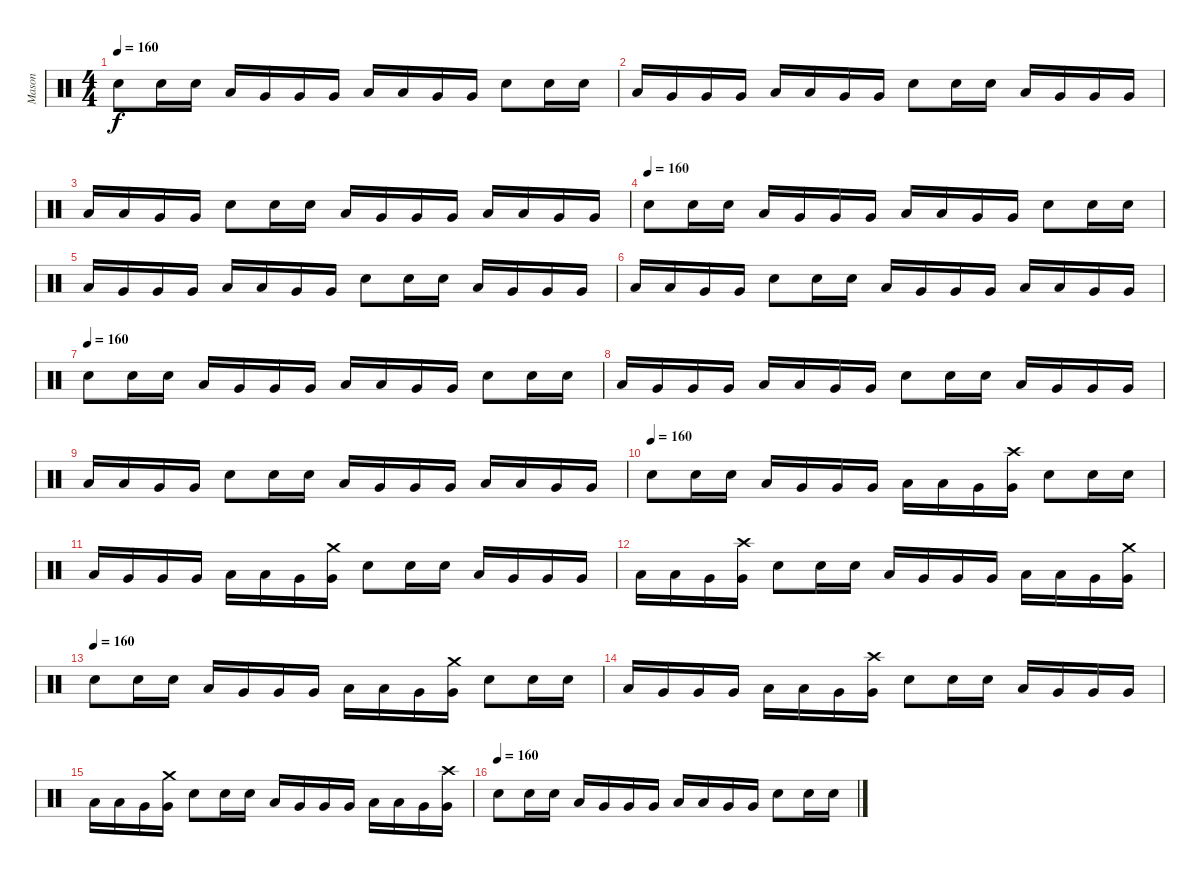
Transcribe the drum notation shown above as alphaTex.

\track ("Mason" "Mason") {instrument percussion}
\staff {score}
\articulation defaults
\ts (4 4)
\tempo 160
\clef neutral
\ks c "Electric Snare (hit)".8{dy f} "Electric Snare (hit)".16 "Electric Snare (hit)".16 "Low Tom (hit)".16 "Very Low Tom (hit)".16 "Very Low Tom (hit)".16 "Very Low Tom (hit)".16 "Low Floor Tom (hit)".16 "Low Floor Tom (hit)".16 "Very Low Tom (hit)".16 "Very Low Tom (hit)".16 "Electric Snare (hit)".8 "Electric Snare (hit)".16 "Electric Snare (hit)".16
|
"Low Tom (hit)".16 "Very Low Tom (hit)".16 "Very Low Tom (hit)".16 "Very Low Tom (hit)".16 "Low Floor Tom (hit)".16 "Low Floor Tom (hit)".16 "Very Low Tom (hit)".16 "Very Low Tom (hit)".16 "Electric Snare (hit)".8 "Electric Snare (hit)".16 "Electric Snare (hit)".16 "Low Tom (hit)".16 "Very Low Tom (hit)".16 "Very Low Tom (hit)".16 "Very Low Tom (hit)".16 |
"Low Floor Tom (hit)".16 "Low Floor Tom (hit)".16 "Very Low Tom (hit)".16 "Very Low Tom (hit)".16 "Electric Snare (hit)".8 "Electric Snare (hit)".16 "Electric Snare (hit)".16 "Low Tom (hit)".16 "Very Low Tom (hit)".16 "Very Low Tom (hit)".16 "Very Low Tom (hit)".16 "Low Floor Tom (hit)".16 "Low Floor Tom (hit)".16 "Very Low Tom (hit)".16 "Very Low Tom (hit)".16 |
\tempo (160)
"Electric Snare (hit)".8 "Electric Snare (hit)".16 "Electric Snare (hit)".16 "Low Tom (hit)".16 "Very Low Tom (hit)".16 "Very Low Tom (hit)".16 "Very Low Tom (hit)".16 "Low Floor Tom (hit)".16 "Low Floor Tom (hit)".16 "Very Low Tom (hit)".16 "Very Low Tom (hit)".16 "Electric Snare (hit)".8 "Electric Snare (hit)".16 "Electric Snare (hit)".16 |
"Low Tom (hit)".16 "Very Low Tom (hit)".16 "Very Low Tom (hit)".16 "Very Low Tom (hit)".16 "Low Floor Tom (hit)".16 "Low Floor Tom (hit)".16 "Very Low Tom (hit)".16 "Very Low Tom (hit)".16 "Electric Snare (hit)".8 "Electric Snare (hit)".16 "Electric Snare (hit)".16 "Low Tom (hit)".16 "Very Low Tom (hit)".16 "Very Low Tom (hit)".16 "Very Low Tom (hit)".16 |
"Low Floor Tom (hit)".16 "Low Floor Tom (hit)".16 "Very Low Tom (hit)".16 "Very Low Tom (hit)".16 "Electric Snare (hit)".8 "Electric Snare (hit)".16 "Electric Snare (hit)".16 "Low Tom (hit)".16 "Very Low Tom (hit)".16 "Very Low Tom (hit)".16 "Very Low Tom (hit)".16 "Low Floor Tom (hit)".16 "Low Floor Tom (hit)".16 "Very Low Tom (hit)".16 "Very Low Tom (hit)".16 |
\tempo (160)
"Electric Snare (hit)".8 "Electric Snare (hit)".16 "Electric Snare (hit)".16 "Low Tom (hit)".16 "Very Low Tom (hit)".16 "Very Low Tom (hit)".16 "Very Low Tom (hit)".16 "Low Floor Tom (hit)".16 "Low Floor Tom (hit)".16 "Very Low Tom (hit)".16 "Very Low Tom (hit)".16 "Electric Snare (hit)".8 "Electric Snare (hit)".16 "Electric Snare (hit)".16 |
"Low Tom (hit)".16 "Very Low Tom (hit)".16 "Very Low Tom (hit)".16 "Very Low Tom (hit)".16 "Low Floor Tom (hit)".16 "Low Floor Tom (hit)".16 "Very Low Tom (hit)".16 "Very Low Tom (hit)".16 "Electric Snare (hit)".8 "Electric Snare (hit)".16 "Electric Snare (hit)".16 "Low Tom (hit)".16 "Very Low Tom (hit)".16 "Very Low Tom (hit)".16 "Very Low Tom (hit)".16 |
"Low Floor Tom (hit)".16 "Low Floor Tom (hit)".16 "Very Low Tom (hit)".16 "Very Low Tom (hit)".16 "Electric Snare (hit)".8 "Electric Snare (hit)".16 "Electric Snare (hit)".16 "Low Tom (hit)".16 "Very Low Tom (hit)".16 "Very Low Tom (hit)".16 "Very Low Tom (hit)".16 "Low Floor Tom (hit)".16 "Low Floor Tom (hit)".16 "Very Low Tom (hit)".16 "Very Low Tom (hit)".16 |
\tempo (160)
"Electric Snare (hit)".8 "Electric Snare (hit)".16 "Electric Snare (hit)".16 "Low Tom (hit)".16 "Very Low Tom (hit)".16 "Very Low Tom (hit)".16 "Very Low Tom (hit)".16 "Low Floor Tom (hit)".16 "Low Floor Tom (hit)".16 "Very Low Tom (hit)".16 ("Crash high (hit)" "Very Low Tom (hit)").16 "Electric Snare (hit)".8 "Electric Snare (hit)".16 "Electric Snare (hit)".16 |
"Low Tom (hit)".16 "Very Low Tom (hit)".16 "Very Low Tom (hit)".16 "Very Low Tom (hit)".16 "Low Floor Tom (hit)".16 "Low Floor Tom (hit)".16 "Very Low Tom (hit)".16 ("Crash medium (hit)" "Very Low Tom (hit)").16 "Electric Snare (hit)".8 "Electric Snare (hit)".16 "Electric Snare (hit)".16 "Low Tom (hit)".16 "Very Low Tom (hit)".16 "Very Low Tom (hit)".16 "Very Low Tom (hit)".16 |
"Low Floor Tom (hit)".16 "Low Floor Tom (hit)".16 "Very Low Tom (hit)".16 ("Crash high (hit)" "Very Low Tom (hit)").16 "Electric Snare (hit)".8 "Electric Snare (hit)".16 "Electric Snare (hit)".16 "Low Tom (hit)".16 "Very Low Tom (hit)".16 "Very Low Tom (hit)".16 "Very Low Tom (hit)".16 "Low Floor Tom (hit)".16 "Low Floor Tom (hit)".16 "Very Low Tom (hit)".16 ("Crash medium (hit)" "Very Low Tom (hit)").16 |
\tempo (160)
"Electric Snare (hit)".8 "Electric Snare (hit)".16 "Electric Snare (hit)".16 "Low Tom (hit)".16 "Very Low Tom (hit)".16 "Very Low Tom (hit)".16 "Very Low Tom (hit)".16 "Low Floor Tom (hit)".16 "Low Floor Tom (hit)".16 "Very Low Tom (hit)".16 ("Crash medium (hit)" "Very Low Tom (hit)").16 "Electric Snare (hit)".8 "Electric Snare (hit)".16 "Electric Snare (hit)".16 |
"Low Tom (hit)".16 "Very Low Tom (hit)".16 "Very Low Tom (hit)".16 "Very Low Tom (hit)".16 "Low Floor Tom (hit)".16 "Low Floor Tom (hit)".16 "Very Low Tom (hit)".16 ("Crash high (hit)" "Very Low Tom (hit)").16 "Electric Snare (hit)".8 "Electric Snare (hit)".16 "Electric Snare (hit)".16 "Low Tom (hit)".16 "Very Low Tom (hit)".16 "Very Low Tom (hit)".16 "Very Low Tom (hit)".16 |
"Low Floor Tom (hit)".16 "Low Floor Tom (hit)".16 "Very Low Tom (hit)".16 ("Crash medium (hit)" "Very Low Tom (hit)").16 "Electric Snare (hit)".8 "Electric Snare (hit)".16 "Electric Snare (hit)".16 "Low Tom (hit)".16 "Very Low Tom (hit)".16 "Very Low Tom (hit)".16 "Very Low Tom (hit)".16 "Low Floor Tom (hit)".16 "Low Floor Tom (hit)".16 "Very Low Tom (hit)".16 ("Crash high (hit)" "Very Low Tom (hit)").16 |
\tempo (160)
"Electric Snare (hit)".8 "Electric Snare (hit)".16 "Electric Snare (hit)".16 "Low Tom (hit)".16 "Very Low Tom (hit)".16 "Very Low Tom (hit)".16 "Very Low Tom (hit)".16 "Low Floor Tom (hit)".16 "Low Floor Tom (hit)".16 "Very Low Tom (hit)".16 "Very Low Tom (hit)".16 "Electric Snare (hit)".8 "Electric Snare (hit)".16 "Electric Snare (hit)".16
